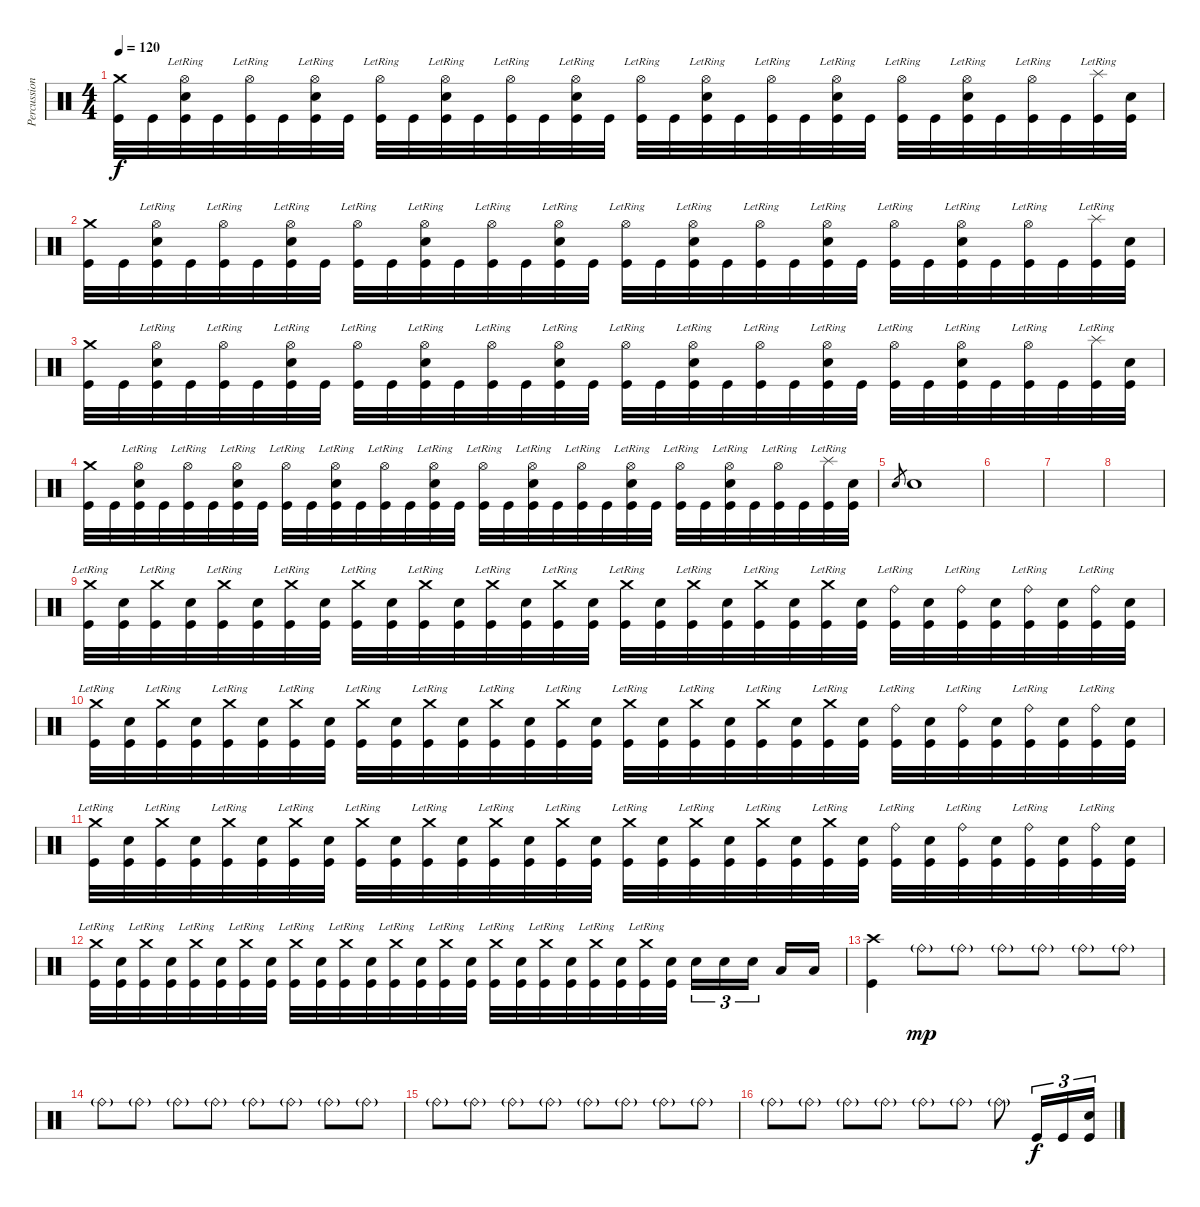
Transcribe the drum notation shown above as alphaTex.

\track ("Percussion" "Percussion") {instrument percussion}
\staff {score}
\articulation defaults
\ts (4 4)
\tempo 120
\clef neutral
\ks c
("Crash medium (hit)" "Kick (hit)").32{dy f} "Kick (hit)".32 ("Hi-Hat (open)"{lr} "Snare (hit) 2" "Kick (hit)").32 "Kick (hit)".32 ("Hi-Hat (open)"{lr} "Kick (hit)").32 "Kick (hit)".32 ("Hi-Hat (open)"{lr} "Snare (hit) 2" "Kick (hit)").32 "Kick (hit)".32 ("Hi-Hat (open)"{lr} "Kick (hit)").32 "Kick (hit)".32 ("Hi-Hat (open)"{lr} "Snare (hit) 2" "Kick (hit)").32 "Kick (hit)".32 ("Hi-Hat (open)"{lr} "Kick (hit)").32 "Kick (hit)".32 ("Hi-Hat (open)"{lr} "Snare (hit) 2" "Kick (hit)").32 "Kick (hit)".32 ("Hi-Hat (open)"{lr} "Kick (hit)").32 "Kick (hit)".32 ("Hi-Hat (open)"{lr} "Snare (hit) 2" "Kick (hit)").32 "Kick (hit)".32 ("Hi-Hat (open)"{lr} "Kick (hit)").32 "Kick (hit)".32 ("Hi-Hat (open)"{lr} "Snare (hit) 2" "Kick (hit)").32 "Kick (hit)".32 ("Hi-Hat (open)"{lr} "Kick (hit)").32 "Kick (hit)".32 ("Hi-Hat (open)"{lr} "Snare (hit) 2" "Kick (hit)").32 "Kick (hit)".32 ("Hi-Hat (open)"{lr} "Kick (hit)").32 "Kick (hit)".32 ("Splash (hit)"{lr} "Kick (hit)").32 ("Snare (hit) 2" "Kick (hit)").32 |
("Crash medium (hit)" "Kick (hit)").32 "Kick (hit)".32 ("Hi-Hat (open)"{lr} "Snare (hit) 2" "Kick (hit)").32 "Kick (hit)".32 ("Hi-Hat (open)"{lr} "Kick (hit)").32 "Kick (hit)".32 ("Hi-Hat (open)"{lr} "Snare (hit) 2" "Kick (hit)").32 "Kick (hit)".32 ("Hi-Hat (open)"{lr} "Kick (hit)").32 "Kick (hit)".32 ("Hi-Hat (open)"{lr} "Snare (hit) 2" "Kick (hit)").32 "Kick (hit)".32 ("Hi-Hat (open)"{lr} "Kick (hit)").32 "Kick (hit)".32 ("Hi-Hat (open)"{lr} "Snare (hit) 2" "Kick (hit)").32 "Kick (hit)".32 ("Hi-Hat (open)"{lr} "Kick (hit)").32 "Kick (hit)".32 ("Hi-Hat (open)"{lr} "Snare (hit) 2" "Kick (hit)").32 "Kick (hit)".32 ("Hi-Hat (open)"{lr} "Kick (hit)").32 "Kick (hit)".32 ("Hi-Hat (open)"{lr} "Snare (hit) 2" "Kick (hit)").32 "Kick (hit)".32 ("Hi-Hat (open)"{lr} "Kick (hit)").32 "Kick (hit)".32 ("Hi-Hat (open)"{lr} "Snare (hit) 2" "Kick (hit)").32 "Kick (hit)".32 ("Hi-Hat (open)"{lr} "Kick (hit)").32 "Kick (hit)".32 ("Splash (hit)"{lr} "Kick (hit)").32 ("Snare (hit) 2" "Kick (hit)").32 |
("Crash medium (hit)" "Kick (hit)").32 "Kick (hit)".32 ("Hi-Hat (open)"{lr} "Snare (hit) 2" "Kick (hit)").32 "Kick (hit)".32 ("Hi-Hat (open)"{lr} "Kick (hit)").32 "Kick (hit)".32 ("Hi-Hat (open)"{lr} "Snare (hit) 2" "Kick (hit)").32 "Kick (hit)".32 ("Hi-Hat (open)"{lr} "Kick (hit)").32 "Kick (hit)".32 ("Hi-Hat (open)"{lr} "Snare (hit) 2" "Kick (hit)").32 "Kick (hit)".32 ("Hi-Hat (open)"{lr} "Kick (hit)").32 "Kick (hit)".32 ("Hi-Hat (open)"{lr} "Snare (hit) 2" "Kick (hit)").32 "Kick (hit)".32 ("Hi-Hat (open)"{lr} "Kick (hit)").32 "Kick (hit)".32 ("Hi-Hat (open)"{lr} "Snare (hit) 2" "Kick (hit)").32 "Kick (hit)".32 ("Hi-Hat (open)"{lr} "Kick (hit)").32 "Kick (hit)".32 ("Hi-Hat (open)"{lr} "Snare (hit) 2" "Kick (hit)").32 "Kick (hit)".32 ("Hi-Hat (open)"{lr} "Kick (hit)").32 "Kick (hit)".32 ("Hi-Hat (open)"{lr} "Snare (hit) 2" "Kick (hit)").32 "Kick (hit)".32 ("Hi-Hat (open)"{lr} "Kick (hit)").32 "Kick (hit)".32 ("Splash (hit)"{lr} "Kick (hit)").32 ("Snare (hit) 2" "Kick (hit)").32 |
("Crash medium (hit)" "Kick (hit)").32 "Kick (hit)".32 ("Hi-Hat (open)"{lr} "Snare (hit) 2" "Kick (hit)").32 "Kick (hit)".32 ("Hi-Hat (open)"{lr} "Kick (hit)").32 "Kick (hit)".32 ("Hi-Hat (open)"{lr} "Snare (hit) 2" "Kick (hit)").32 "Kick (hit)".32 ("Hi-Hat (open)"{lr} "Kick (hit)").32 "Kick (hit)".32 ("Hi-Hat (open)"{lr} "Snare (hit) 2" "Kick (hit)").32 "Kick (hit)".32 ("Hi-Hat (open)"{lr} "Kick (hit)").32 "Kick (hit)".32 ("Hi-Hat (open)"{lr} "Snare (hit) 2" "Kick (hit)").32 "Kick (hit)".32 ("Hi-Hat (open)"{lr} "Kick (hit)").32 "Kick (hit)".32 ("Hi-Hat (open)"{lr} "Snare (hit) 2" "Kick (hit)").32 "Kick (hit)".32 ("Hi-Hat (open)"{lr} "Kick (hit)").32 "Kick (hit)".32 ("Hi-Hat (open)"{lr} "Snare (hit) 2" "Kick (hit)").32 "Kick (hit)".32 ("Hi-Hat (open)"{lr} "Kick (hit)").32 "Kick (hit)".32 ("Hi-Hat (open)"{lr} "Snare (hit) 2" "Kick (hit)").32 "Kick (hit)".32 ("Hi-Hat (open)"{lr} "Kick (hit)").32 "Kick (hit)".32 ("Splash (hit)"{lr} "Kick (hit)").32 ("Snare (hit) 2" "Kick (hit)").32 |
"Snare (hit) 2".8{gr} "Snare (hit) 2".1 |
|
|
|
("Crash medium (hit)"{lr} "Kick (hit)").32 ("Snare (hit) 2" "Kick (hit)").32 ("Crash medium (hit)"{lr} "Kick (hit)").32 ("Snare (hit) 2" "Kick (hit)").32 ("Crash medium (hit)"{lr} "Kick (hit)").32 ("Snare (hit) 2" "Kick (hit)").32 ("Crash medium (hit)"{lr} "Kick (hit)").32 ("Snare (hit) 2" "Kick (hit)").32 ("Crash medium (hit)"{lr} "Kick (hit)").32 ("Snare (hit) 2" "Kick (hit)").32 ("Crash medium (hit)"{lr} "Kick (hit)").32 ("Snare (hit) 2" "Kick (hit)").32 ("Crash medium (hit)"{lr} "Kick (hit)").32 ("Snare (hit) 2" "Kick (hit)").32 ("Crash medium (hit)"{lr} "Kick (hit)").32 ("Snare (hit) 2" "Kick (hit)").32 ("Crash medium (hit)"{lr} "Kick (hit)").32 ("Snare (hit) 2" "Kick (hit)").32 ("Crash medium (hit)"{lr} "Kick (hit)").32 ("Snare (hit) 2" "Kick (hit)").32 ("Crash medium (hit)"{lr} "Kick (hit)").32 ("Snare (hit) 2" "Kick (hit)").32 ("Crash medium (hit)"{lr} "Kick (hit)").32 ("Snare (hit) 2" "Kick (hit)").32 ("Ride (bell)"{lr} "Kick (hit)").32 ("Snare (hit) 2" "Kick (hit)").32 ("Ride (bell)"{lr} "Kick (hit)").32 ("Snare (hit) 2" "Kick (hit)").32 ("Ride (bell)"{lr} "Kick (hit)").32 ("Snare (hit) 2" "Kick (hit)").32 ("Ride (bell)"{lr} "Kick (hit)").32 ("Snare (hit) 2" "Kick (hit)").32 |
("Crash medium (hit)"{lr} "Kick (hit)").32 ("Snare (hit) 2" "Kick (hit)").32 ("Crash medium (hit)"{lr} "Kick (hit)").32 ("Snare (hit) 2" "Kick (hit)").32 ("Crash medium (hit)"{lr} "Kick (hit)").32 ("Snare (hit) 2" "Kick (hit)").32 ("Crash medium (hit)"{lr} "Kick (hit)").32 ("Snare (hit) 2" "Kick (hit)").32 ("Crash medium (hit)"{lr} "Kick (hit)").32 ("Snare (hit) 2" "Kick (hit)").32 ("Crash medium (hit)"{lr} "Kick (hit)").32 ("Snare (hit) 2" "Kick (hit)").32 ("Crash medium (hit)"{lr} "Kick (hit)").32 ("Snare (hit) 2" "Kick (hit)").32 ("Crash medium (hit)"{lr} "Kick (hit)").32 ("Snare (hit) 2" "Kick (hit)").32 ("Crash medium (hit)"{lr} "Kick (hit)").32 ("Snare (hit) 2" "Kick (hit)").32 ("Crash medium (hit)"{lr} "Kick (hit)").32 ("Snare (hit) 2" "Kick (hit)").32 ("Crash medium (hit)"{lr} "Kick (hit)").32 ("Snare (hit) 2" "Kick (hit)").32 ("Crash medium (hit)"{lr} "Kick (hit)").32 ("Snare (hit) 2" "Kick (hit)").32 ("Ride (bell)"{lr} "Kick (hit)").32 ("Snare (hit) 2" "Kick (hit)").32 ("Ride (bell)"{lr} "Kick (hit)").32 ("Snare (hit) 2" "Kick (hit)").32 ("Ride (bell)"{lr} "Kick (hit)").32 ("Snare (hit) 2" "Kick (hit)").32 ("Ride (bell)"{lr} "Kick (hit)").32 ("Snare (hit) 2" "Kick (hit)").32 |
("Crash medium (hit)"{lr} "Kick (hit)").32 ("Snare (hit) 2" "Kick (hit)").32 ("Crash medium (hit)"{lr} "Kick (hit)").32 ("Snare (hit) 2" "Kick (hit)").32 ("Crash medium (hit)"{lr} "Kick (hit)").32 ("Snare (hit) 2" "Kick (hit)").32 ("Crash medium (hit)"{lr} "Kick (hit)").32 ("Snare (hit) 2" "Kick (hit)").32 ("Crash medium (hit)"{lr} "Kick (hit)").32 ("Snare (hit) 2" "Kick (hit)").32 ("Crash medium (hit)"{lr} "Kick (hit)").32 ("Snare (hit) 2" "Kick (hit)").32 ("Crash medium (hit)"{lr} "Kick (hit)").32 ("Snare (hit) 2" "Kick (hit)").32 ("Crash medium (hit)"{lr} "Kick (hit)").32 ("Snare (hit) 2" "Kick (hit)").32 ("Crash medium (hit)"{lr} "Kick (hit)").32 ("Snare (hit) 2" "Kick (hit)").32 ("Crash medium (hit)"{lr} "Kick (hit)").32 ("Snare (hit) 2" "Kick (hit)").32 ("Crash medium (hit)"{lr} "Kick (hit)").32 ("Snare (hit) 2" "Kick (hit)").32 ("Crash medium (hit)"{lr} "Kick (hit)").32 ("Snare (hit) 2" "Kick (hit)").32 ("Ride (bell)"{lr} "Kick (hit)").32 ("Snare (hit) 2" "Kick (hit)").32 ("Ride (bell)"{lr} "Kick (hit)").32 ("Snare (hit) 2" "Kick (hit)").32 ("Ride (bell)"{lr} "Kick (hit)").32 ("Snare (hit) 2" "Kick (hit)").32 ("Ride (bell)"{lr} "Kick (hit)").32 ("Snare (hit) 2" "Kick (hit)").32 |
("Crash medium (hit)"{lr} "Kick (hit)").32 ("Snare (hit) 2" "Kick (hit)").32 ("Crash medium (hit)"{lr} "Kick (hit)").32 ("Snare (hit) 2" "Kick (hit)").32 ("Crash medium (hit)"{lr} "Kick (hit)").32 ("Snare (hit) 2" "Kick (hit)").32 ("Crash medium (hit)"{lr} "Kick (hit)").32 ("Snare (hit) 2" "Kick (hit)").32 ("Crash medium (hit)"{lr} "Kick (hit)").32 ("Snare (hit) 2" "Kick (hit)").32 ("Crash medium (hit)"{lr} "Kick (hit)").32 ("Snare (hit) 2" "Kick (hit)").32 ("Crash medium (hit)"{lr} "Kick (hit)").32 ("Snare (hit) 2" "Kick (hit)").32 ("Crash medium (hit)"{lr} "Kick (hit)").32 ("Snare (hit) 2" "Kick (hit)").32 ("Crash medium (hit)"{lr} "Kick (hit)").32 ("Snare (hit) 2" "Kick (hit)").32 ("Crash medium (hit)"{lr} "Kick (hit)").32 ("Snare (hit) 2" "Kick (hit)").32 ("Crash medium (hit)"{lr} "Kick (hit)").32 ("Snare (hit) 2" "Kick (hit)").32 ("Crash medium (hit)"{lr} "Kick (hit)").32 ("Snare (hit) 2" "Kick (hit)").32 "Snare (hit) 2".16{tu (3 2)} "Snare (hit) 2".16{tu (3 2)} "Snare (hit) 2".16{tu (3 2)} "Low Floor Tom (hit)".16 "Low Floor Tom (hit)".16 |
("Kick (hit)" "Crash high (hit)").4 "Ride (bell)"{g}.8{dy mp} "Ride (bell)"{g}.8 "Ride (bell)"{g}.8 "Ride (bell)"{g}.8 "Ride (bell)"{g}.8 "Ride (bell)"{g}.8 |
"Ride (bell)"{g}.8 "Ride (bell)"{g}.8 "Ride (bell)"{g}.8 "Ride (bell)"{g}.8 "Ride (bell)"{g}.8 "Ride (bell)"{g}.8 "Ride (bell)"{g}.8 "Ride (bell)"{g}.8 |
"Ride (bell)"{g}.8 "Ride (bell)"{g}.8 "Ride (bell)"{g}.8 "Ride (bell)"{g}.8 "Ride (bell)"{g}.8 "Ride (bell)"{g}.8 "Ride (bell)"{g}.8 "Ride (bell)"{g}.8 |
"Ride (bell)"{g}.8 "Ride (bell)"{g}.8 "Ride (bell)"{g}.8 "Ride (bell)"{g}.8 "Ride (bell)"{g}.8 "Ride (bell)"{g}.8 "Ride (bell)"{g}.8 "Kick (hit)".16{tu (3 2) dy f} "Kick (hit)".16{tu (3 2)} ("Kick (hit)" "Snare (hit) 2").16{tu (3 2)}
